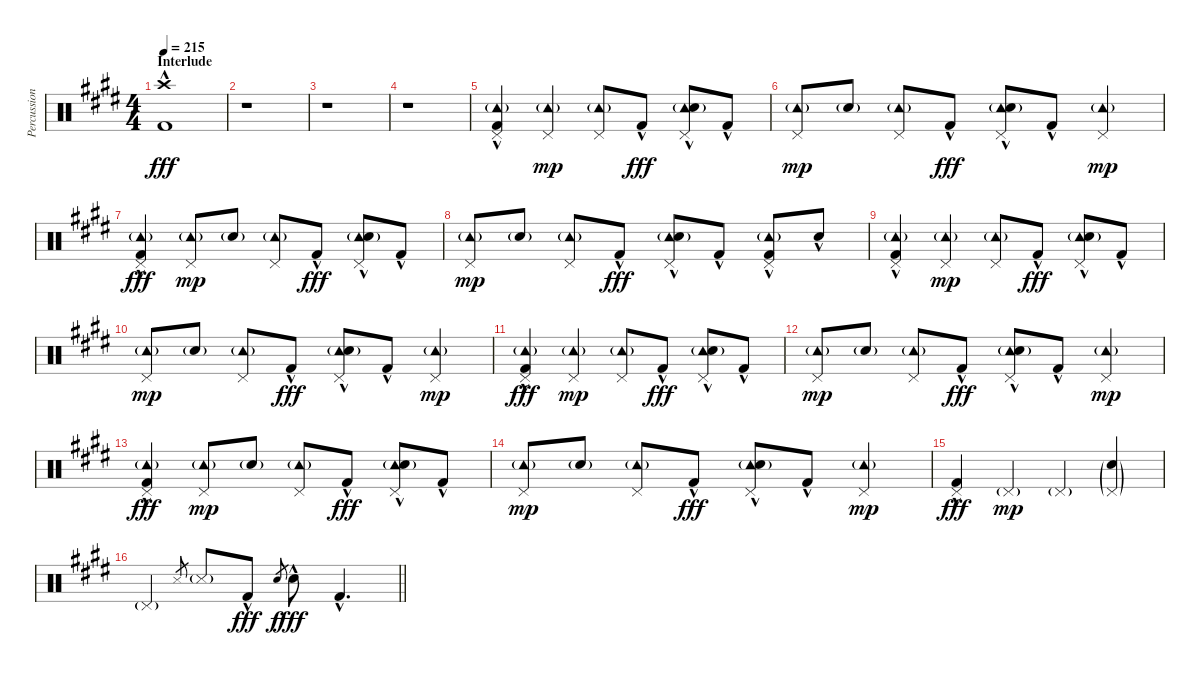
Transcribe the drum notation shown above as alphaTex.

\track ("Percussion" "Percussion") {instrument percussion}
\staff {score}
\articulation defaults
\ts (4 4)
\section ("" "Interlude")
\tempo 215
\clef neutral
\ks e
("Crash high (hit)" "Kick (hit) 2"{hac}).1{dy fff} |
r.1 |
r.1 |
r.1 |
("Tambourine (hit)"{g} "Pedal Hi-Hat (hit)" "Kick (hit) 2"{hac}).4 ("Tambourine (hit)"{g} "Pedal Hi-Hat (hit)").4{dy mp} ("Tambourine (hit)"{g} "Pedal Hi-Hat (hit)").8 "Kick (hit) 2"{hac}.8{dy fff} ("Tambourine (hit)"{g} "Pedal Hi-Hat (hit)" "Electric Snare (hit)"{hac}).8 "Kick (hit) 2"{hac}.8 |
("Tambourine (hit)"{g} "Pedal Hi-Hat (hit)").8{dy mp} "Electric Snare (hit)"{g}.8 ("Tambourine (hit)"{g} "Pedal Hi-Hat (hit)").8 "Kick (hit) 2"{hac}.8{dy fff} ("Tambourine (hit)"{g} "Pedal Hi-Hat (hit)" "Electric Snare (hit)"{hac}).8 "Kick (hit) 2"{hac}.8 ("Tambourine (hit)"{g} "Pedal Hi-Hat (hit)").4{dy mp} |
("Tambourine (hit)"{g} "Pedal Hi-Hat (hit)" "Kick (hit) 2"{hac}).4{dy fff} ("Tambourine (hit)"{g} "Pedal Hi-Hat (hit)").8{dy mp} "Electric Snare (hit)"{g}.8 ("Tambourine (hit)"{g} "Pedal Hi-Hat (hit)").8 "Kick (hit) 2"{hac}.8{dy fff} ("Tambourine (hit)"{g} "Pedal Hi-Hat (hit)" "Electric Snare (hit)"{hac}).8 "Kick (hit) 2"{hac}.8 |
("Tambourine (hit)"{g} "Pedal Hi-Hat (hit)").8{dy mp} "Electric Snare (hit)"{g}.8 ("Tambourine (hit)"{g} "Pedal Hi-Hat (hit)").8 "Kick (hit) 2"{hac}.8{dy fff} ("Tambourine (hit)"{g} "Pedal Hi-Hat (hit)" "Electric Snare (hit)"{hac}).8 "Kick (hit) 2"{hac}.8 ("Tambourine (hit)"{g} "Pedal Hi-Hat (hit)" "Kick (hit) 2"{hac}).8 "Electric Snare (hit)"{hac}.8 |
("Tambourine (hit)"{g} "Pedal Hi-Hat (hit)" "Kick (hit) 2"{hac}).4 ("Tambourine (hit)"{g} "Pedal Hi-Hat (hit)").4{dy mp} ("Tambourine (hit)"{g} "Pedal Hi-Hat (hit)").8 "Kick (hit) 2"{hac}.8{dy fff} ("Tambourine (hit)"{g} "Pedal Hi-Hat (hit)" "Electric Snare (hit)"{hac}).8 "Kick (hit) 2"{hac}.8 |
("Tambourine (hit)"{g} "Pedal Hi-Hat (hit)").8{dy mp} "Electric Snare (hit)"{g}.8 ("Tambourine (hit)"{g} "Pedal Hi-Hat (hit)").8 "Kick (hit) 2"{hac}.8{dy fff} ("Tambourine (hit)"{g} "Pedal Hi-Hat (hit)" "Electric Snare (hit)"{hac}).8 "Kick (hit) 2"{hac}.8 ("Tambourine (hit)"{g} "Pedal Hi-Hat (hit)").4{dy mp} |
("Tambourine (hit)"{g} "Pedal Hi-Hat (hit)" "Kick (hit) 2"{hac}).4{dy fff} ("Tambourine (hit)"{g} "Pedal Hi-Hat (hit)").4{dy mp} ("Tambourine (hit)"{g} "Pedal Hi-Hat (hit)").8 "Kick (hit) 2"{hac}.8{dy fff} ("Tambourine (hit)"{g} "Pedal Hi-Hat (hit)" "Electric Snare (hit)"{hac}).8 "Kick (hit) 2"{hac}.8 |
("Tambourine (hit)"{g} "Pedal Hi-Hat (hit)").8{dy mp} "Electric Snare (hit)"{g}.8 ("Tambourine (hit)"{g} "Pedal Hi-Hat (hit)").8 "Kick (hit) 2"{hac}.8{dy fff} ("Tambourine (hit)"{g} "Pedal Hi-Hat (hit)" "Electric Snare (hit)"{hac}).8 "Kick (hit) 2"{hac}.8 ("Tambourine (hit)"{g} "Pedal Hi-Hat (hit)").4{dy mp} |
("Tambourine (hit)"{g} "Pedal Hi-Hat (hit)" "Kick (hit) 2"{hac}).4{dy fff} ("Tambourine (hit)"{g} "Pedal Hi-Hat (hit)").8{dy mp} "Electric Snare (hit)"{g}.8 ("Tambourine (hit)"{g} "Pedal Hi-Hat (hit)").8 "Kick (hit) 2"{hac}.8{dy fff} ("Tambourine (hit)"{g} "Pedal Hi-Hat (hit)" "Electric Snare (hit)"{hac}).8 "Kick (hit) 2"{hac}.8 |
("Tambourine (hit)"{g} "Pedal Hi-Hat (hit)").8{dy mp} "Electric Snare (hit)"{g}.8 ("Tambourine (hit)"{g} "Pedal Hi-Hat (hit)").8 "Kick (hit) 2"{hac}.8{dy fff} ("Tambourine (hit)"{g} "Pedal Hi-Hat (hit)" "Electric Snare (hit)"{hac}).8 "Kick (hit) 2"{hac}.8 ("Tambourine (hit)"{g} "Pedal Hi-Hat (hit)").4{dy mp} |
("Pedal Hi-Hat (hit)" "Kick (hit) 2"{hac}).4{dy fff} "Pedal Hi-Hat (hit)"{g}.4{dy mp} "Pedal Hi-Hat (hit)"{g}.4 ("Pedal Hi-Hat (hit)"{g} "Electric Snare (hit)"{g}).4 |
\barLineRight lightlight "Pedal Hi-Hat (hit)"{g}.4 "Snare (side stick) 3".8{gr} "Snare (side stick) 3"{g}.8 "Kick (hit) 2"{hac}.8{dy fff} "Electric Snare (hit)".8{gr dy f} "Electric Snare (hit)"{hac}.8{dy fff} "Kick (hit) 2"{hac}.4{d}
